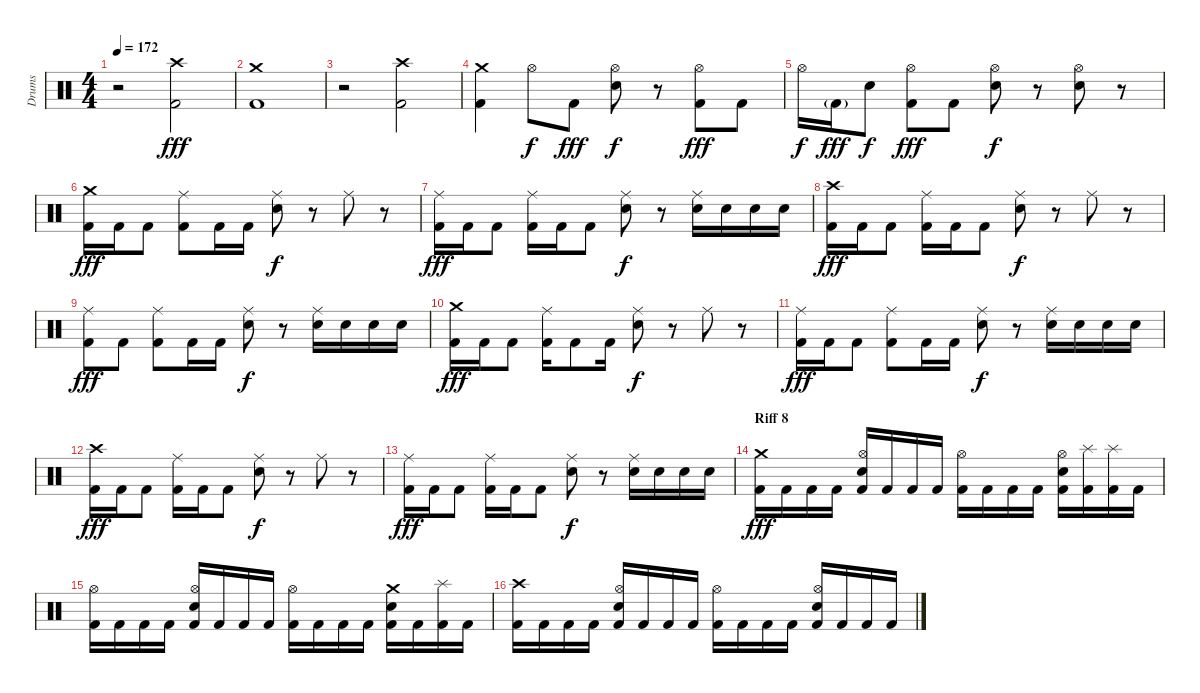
\track ("Drums" "Drums") {instrument percussion}
\staff {score}
\articulation defaults
\ts (4 4)
\tempo 172
\clef neutral
\ks c
r.2{dy fff} ("Crash high (hit)" "Kick (hit) 2").2 |
("Crash medium (hit)" "Kick (hit) 2").1 |
r.2 ("Crash high (hit)" "Kick (hit) 2").2 |
("Crash medium (hit)" "Kick (hit) 2").4 "Hi-Hat (open)".8{dy f} "Kick (hit) 2".8{dy fff} ("Hi-Hat (open)" "Electric Snare (hit)").8{dy f} r.8 ("Hi-Hat (open)" "Kick (hit) 2").8{dy fff} "Kick (hit) 2".8 |
"Hi-Hat (open)".16{dy f} "Kick (hit) 2"{g}.16{dy fff} "Electric Snare (hit)".8{dy f} ("Hi-Hat (open)" "Kick (hit) 2").8{dy fff} "Kick (hit) 2".8 ("Hi-Hat (open)" "Electric Snare (hit)").8{dy f} r.8 ("Hi-Hat (open)" "Electric Snare (hit)").8 r.8 |
("Crash medium (hit)" "Kick (hit) 2").16{dy fff} "Kick (hit) 2".16 "Kick (hit) 2".8 ("Ride (middle)" "Kick (hit) 2").8 "Kick (hit) 2".16 "Kick (hit) 2".16 ("Ride (middle)" "Electric Snare (hit)").8{dy f} r.8 "Ride (middle)".8 r.8 |
("Ride (middle)" "Kick (hit) 2").16{dy fff} "Kick (hit) 2".16 "Kick (hit) 2".8 ("Ride (middle)" "Kick (hit) 2").16 "Kick (hit) 2".16 "Kick (hit) 2".8 ("Ride (middle)" "Electric Snare (hit)").8{dy f} r.8 ("Ride (middle)" "Electric Snare (hit)").16 "Electric Snare (hit)".16 "Electric Snare (hit)".16 "Electric Snare (hit)".16 |
("Crash high (hit)" "Kick (hit) 2").16{dy fff} "Kick (hit) 2".16 "Kick (hit) 2".8 ("Ride (middle)" "Kick (hit) 2").16 "Kick (hit) 2".16 "Kick (hit) 2".8 ("Ride (middle)" "Electric Snare (hit)").8{dy f} r.8 "Ride (middle)".8 r.8 |
("Ride (middle)" "Kick (hit) 2").8{dy fff} "Kick (hit) 2".8 ("Ride (middle)" "Kick (hit) 2").8 "Kick (hit) 2".16 "Kick (hit) 2".16 ("Ride (middle)" "Electric Snare (hit)").8{dy f} r.8 ("Ride (middle)" "Electric Snare (hit)").16 "Electric Snare (hit)".16 "Electric Snare (hit)".16 "Electric Snare (hit)".16 |
("Crash medium (hit)" "Kick (hit) 2").16{dy fff} "Kick (hit) 2".16 "Kick (hit) 2".8 ("Ride (middle)" "Kick (hit) 2").16 "Kick (hit) 2".8 "Kick (hit) 2".16 ("Ride (middle)" "Electric Snare (hit)").8{dy f} r.8 "Ride (middle)".8 r.8 |
("Ride (middle)" "Kick (hit) 2").16{dy fff} "Kick (hit) 2".16 "Kick (hit) 2".8 ("Ride (middle)" "Kick (hit) 2").8 "Kick (hit) 2".16 "Kick (hit) 2".16 ("Ride (middle)" "Electric Snare (hit)").8{dy f} r.8 ("Ride (middle)" "Electric Snare (hit)").16 "Electric Snare (hit)".16 "Electric Snare (hit)".16 "Electric Snare (hit)".16 |
("Crash high (hit)" "Kick (hit) 2").16{dy fff} "Kick (hit) 2".16 "Kick (hit) 2".8 ("Ride (middle)" "Kick (hit) 2").16 "Kick (hit) 2".16 "Kick (hit) 2".8 ("Ride (middle)" "Electric Snare (hit)").8{dy f} r.8 "Ride (middle)".8 r.8 |
("Ride (middle)" "Kick (hit) 2").16{dy fff} "Kick (hit) 2".16 "Kick (hit) 2".8 ("Ride (middle)" "Kick (hit) 2").16 "Kick (hit) 2".16 "Kick (hit) 2".8 ("Ride (middle)" "Electric Snare (hit)").8{dy f} r.8 ("Ride (middle)" "Electric Snare (hit)").16 "Electric Snare (hit)".16 "Electric Snare (hit)".16 "Electric Snare (hit)".16 |
\section ("" "Riff 8")
("Crash medium (hit)" "Kick (hit) 2").16{dy fff} "Kick (hit) 2".16 "Kick (hit) 2".16 "Kick (hit) 2".16 ("Hi-Hat (open)" "Electric Snare (hit)" "Kick (hit) 2").16 "Kick (hit) 2".16 "Kick (hit) 2".16 "Kick (hit) 2".16 ("Hi-Hat (open)" "Kick (hit) 2").16 "Kick (hit) 2".16 "Kick (hit) 2".16 "Kick (hit) 2".16 ("Hi-Hat (open)" "Electric Snare (hit)" "Kick (hit) 2").16 ("Splash (hit)" "Kick (hit) 2").16 ("Splash (hit)" "Kick (hit) 2").16 "Kick (hit) 2".16 |
("Hi-Hat (open)" "Kick (hit) 2").16 "Kick (hit) 2".16 "Kick (hit) 2".16 "Kick (hit) 2".16 ("Hi-Hat (open)" "Electric Snare (hit)" "Kick (hit) 2").16 "Kick (hit) 2".16 "Kick (hit) 2".16 "Kick (hit) 2".16 ("Hi-Hat (open)" "Kick (hit) 2").16 "Kick (hit) 2".16 "Kick (hit) 2".16 "Kick (hit) 2".16 ("Crash medium (hit)" "Electric Snare (hit)" "Kick (hit) 2").16 "Kick (hit) 2".16 ("Splash (hit)" "Kick (hit) 2").16 "Kick (hit) 2".16 |
("Crash high (hit)" "Kick (hit) 2").16 "Kick (hit) 2".16 "Kick (hit) 2".16 "Kick (hit) 2".16 ("Hi-Hat (open)" "Electric Snare (hit)" "Kick (hit) 2").16 "Kick (hit) 2".16 "Kick (hit) 2".16 "Kick (hit) 2".16 ("Hi-Hat (open)" "Kick (hit) 2").16 "Kick (hit) 2".16 "Kick (hit) 2".16 "Kick (hit) 2".16 ("Hi-Hat (open)" "Electric Snare (hit)" "Kick (hit) 2").16 "Kick (hit) 2".16 "Kick (hit) 2".16 "Kick (hit) 2".16
